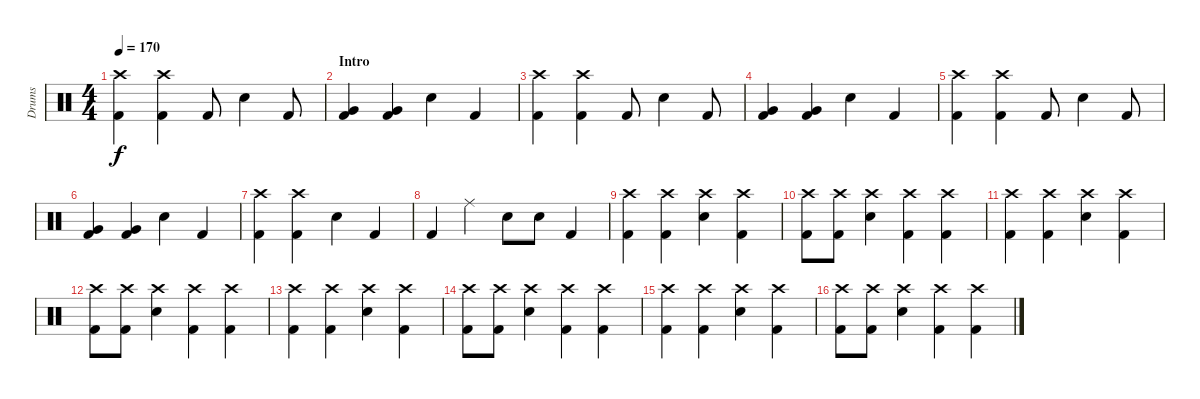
\track ("Drums" "Drums") {instrument percussion}
\staff {score}
\articulation defaults
\ts (4 4)
\tempo 170
\clef neutral
\ks c
("Kick (hit) 2" "Crash high (hit)").4{dy f} ("Kick (hit) 2" "Crash high (hit)").4 "Kick (hit) 2".8 "Snare (hit) 2".4 "Kick (hit) 2".8 |
\section ("" "Intro")
("Very Low Tom (hit)" "Kick (hit) 2").4 ("Kick (hit) 2" "Very Low Tom (hit)").4 "Snare (hit) 2".4 "Kick (hit) 2".4 |
("Kick (hit) 2" "Crash high (hit)").4 ("Kick (hit) 2" "Crash high (hit)").4 "Kick (hit) 2".8 "Snare (hit) 2".4 "Kick (hit) 2".8 |
("Very Low Tom (hit)" "Kick (hit) 2").4 ("Kick (hit) 2" "Very Low Tom (hit)").4 "Snare (hit) 2".4 "Kick (hit) 2".4 |
("Kick (hit) 2" "Crash high (hit)").4 ("Kick (hit) 2" "Crash high (hit)").4 "Kick (hit) 2".8 "Snare (hit) 2".4 "Kick (hit) 2".8 |
("Very Low Tom (hit)" "Kick (hit) 2").4 ("Kick (hit) 2" "Very Low Tom (hit)").4 "Snare (hit) 2".4 "Kick (hit) 2".4 |
("Kick (hit) 2" "Crash high (hit)").4 ("Kick (hit) 2" "Crash high (hit)").4 "Snare (hit) 2".4 "Kick (hit) 2".4 |
"Kick (hit) 2".4 "Ride (middle)".4 "Snare (hit) 2".8 "Snare (hit) 2".8 "Kick (hit) 2".4 |
("Crash high (hit)" "Kick (hit) 2").4 ("Crash high (hit)" "Kick (hit) 2").4 ("Crash high (hit)" "Snare (hit) 2").4 ("Crash high (hit)" "Kick (hit) 2").4 |
("Crash high (hit)" "Kick (hit) 2").8 ("Crash high (hit)" "Kick (hit) 2").8 ("Crash high (hit)" "Snare (hit) 2").4 ("Crash high (hit)" "Kick (hit) 2").4 ("Crash high (hit)" "Kick (hit) 2").4 |
("Crash high (hit)" "Kick (hit) 2").4 ("Crash high (hit)" "Kick (hit) 2").4 ("Crash high (hit)" "Snare (hit) 2").4 ("Crash high (hit)" "Kick (hit) 2").4 |
("Crash high (hit)" "Kick (hit) 2").8 ("Crash high (hit)" "Kick (hit) 2").8 ("Crash high (hit)" "Snare (hit) 2").4 ("Crash high (hit)" "Kick (hit) 2").4 ("Crash high (hit)" "Kick (hit) 2").4 |
("Crash high (hit)" "Kick (hit) 2").4 ("Crash high (hit)" "Kick (hit) 2").4 ("Crash high (hit)" "Snare (hit) 2").4 ("Crash high (hit)" "Kick (hit) 2").4 |
("Crash high (hit)" "Kick (hit) 2").8 ("Crash high (hit)" "Kick (hit) 2").8 ("Crash high (hit)" "Snare (hit) 2").4 ("Crash high (hit)" "Kick (hit) 2").4 ("Crash high (hit)" "Kick (hit) 2").4 |
("Crash high (hit)" "Kick (hit) 2").4 ("Crash high (hit)" "Kick (hit) 2").4 ("Crash high (hit)" "Snare (hit) 2").4 ("Crash high (hit)" "Kick (hit) 2").4 |
("Crash high (hit)" "Kick (hit) 2").8 ("Crash high (hit)" "Kick (hit) 2").8 ("Crash high (hit)" "Snare (hit) 2").4 ("Crash high (hit)" "Kick (hit) 2").4 ("Crash high (hit)" "Kick (hit) 2").4
